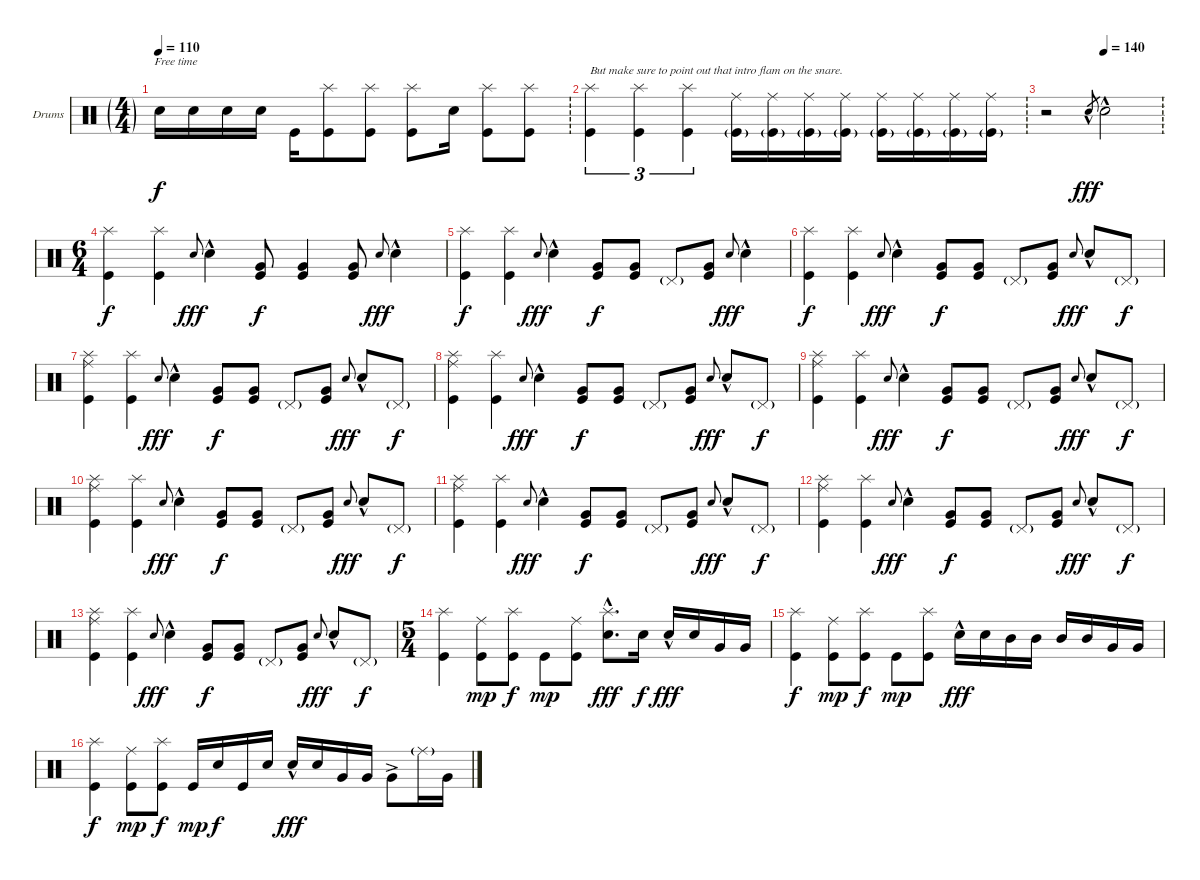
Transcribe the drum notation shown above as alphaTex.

\defaultSystemsLayout 4
\bracketExtendMode groupsimilarinstruments
\firstSystemTrackNameOrientation horizontal
\otherSystemsTrackNameOrientation horizontal
\track ("Drumkit" "Drums") {instrument percussion}
\staff {score}
\articulation defaults
\ts (4 4)
\ft
\tempo 110
\clef neutral
\scale
0.333333
\ks c "Snare (hit) 2".16{dy f} "Snare (hit) 2".16 "Snare (hit) 2".16 "Snare (hit) 2".16 "Kick (hit)".16
("Kick (hit)" "Splash (hit)").8 ("Kick (hit)" "Splash (hit)").8 ("Kick (hit)" "Splash (hit)").8 "Snare (hit) 2".16 ("Kick (hit)" "Splash (hit)").8 ("Kick (hit)" "Splash (hit)").8 |
\ft
\scale
0.333333 ("Kick (hit)" "Splash (hit)").4{tu (3 2) txt "But make sure to point out that intro flam on the snare."} ("Kick (hit)" "Splash (hit)").4{tu (3 2)} ("Kick (hit)" "Splash (hit)").4{tu (3 2)} ("Kick (hit)"{g} "Ride (middle)").16 ("Kick (hit)"{g} "Ride (middle)").16 ("Ride (middle)" "Kick (hit)"{g}).16 ("Ride (middle)" "Kick (hit)"{g}).16 ("Ride (middle)" "Kick (hit)"{g}).16 ("Ride (middle)" "Kick (hit)"{g}).16 ("Ride (middle)" "Kick (hit)"{g}).16 ("Ride (middle)" "Kick (hit)"{g}).16 |
\ft
\tempo (140 0.5)
\scale
0.262911 r.2 "Snare (hit) 2"{hac}.8{gr dy fff} "Snare (hit) 2"{hac}.2 |
\ts (6 4)
\scale
0.474178 ("Kick (hit)" "Splash (hit)").4{dy f} ("Kick (hit)" "Splash (hit)").4 "Snare (hit) 2".8{gr onbeat dy fff} "Snare (hit) 2"{hac}.4 ("Very Low Tom (hit)" "Kick (hit)").8{dy f} ("Kick (hit)" "Very Low Tom (hit)").4 ("Kick (hit)" "Very Low Tom (hit)").8 "Snare (hit) 2".8{gr onbeat dy fff} "Snare (hit) 2"{hac}.4 |
\scale
0.262911 ("Kick (hit)" "Splash (hit)").4{dy f} ("Kick (hit)" "Splash (hit)").4 "Snare (hit) 2".8{gr onbeat dy fff} "Snare (hit) 2"{hac}.4 ("Very Low Tom (hit)" "Kick (hit)").8{dy f} ("Kick (hit)" "Very Low Tom (hit)").8 "Pedal Hi-Hat (hit)"{g}.8 ("Kick (hit)" "Very Low Tom (hit)").8 "Snare (hit) 2".8{gr onbeat dy fff} "Snare (hit) 2"{hac}.4 |
\scale
0.333333 ("Kick (hit)" "Splash (hit)").4{dy f} ("Kick (hit)" "Splash (hit)").4 "Snare (hit) 2".8{gr onbeat dy fff} "Snare (hit) 2"{hac}.4 ("Very Low Tom (hit)" "Kick (hit)").8{dy f} ("Kick (hit)" "Very Low Tom (hit)").8 "Pedal Hi-Hat (hit)"{g}.8 ("Kick (hit)" "Very Low Tom (hit)").8 "Snare (hit) 2".8{gr onbeat dy fff} "Snare (hit) 2"{hac}.8 "Pedal Hi-Hat (hit)"{g}.8{dy f} |
\scale
0.333333 ("Kick (hit)" "Splash (hit)" "Ride (middle)").4 ("Kick (hit)" "Splash (hit)").4 "Snare (hit) 2".8{gr onbeat dy fff} "Snare (hit) 2"{hac}.4 ("Very Low Tom (hit)" "Kick (hit)").8{dy f} ("Kick (hit)" "Very Low Tom (hit)").8 "Pedal Hi-Hat (hit)"{g}.8 ("Kick (hit)" "Very Low Tom (hit)").8 "Snare (hit) 2".8{gr onbeat dy fff} "Snare (hit) 2"{hac}.8 "Pedal Hi-Hat (hit)"{g}.8{dy f} |
\scale
0.333333 ("Kick (hit)" "Splash (hit)" "Ride (middle)").4 ("Kick (hit)" "Splash (hit)").4 "Snare (hit) 2".8{gr onbeat dy fff} "Snare (hit) 2"{hac}.4 ("Very Low Tom (hit)" "Kick (hit)").8{dy f} ("Kick (hit)" "Very Low Tom (hit)").8 "Pedal Hi-Hat (hit)"{g}.8 ("Kick (hit)" "Very Low Tom (hit)").8 "Snare (hit) 2".8{gr onbeat dy fff} "Snare (hit) 2"{hac}.8 "Pedal Hi-Hat (hit)"{g}.8{dy f} |
\scale
0.333333 ("Kick (hit)" "Splash (hit)" "Ride (middle)").4 ("Kick (hit)" "Splash (hit)").4 "Snare (hit) 2".8{gr onbeat dy fff} "Snare (hit) 2"{hac}.4 ("Very Low Tom (hit)" "Kick (hit)").8{dy f} ("Kick (hit)" "Very Low Tom (hit)").8 "Pedal Hi-Hat (hit)"{g}.8 ("Kick (hit)" "Very Low Tom (hit)").8 "Snare (hit) 2".8{gr onbeat dy fff} "Snare (hit) 2"{hac}.8 "Pedal Hi-Hat (hit)"{g}.8{dy f} |
\scale
0.333333 ("Kick (hit)" "Splash (hit)" "Ride (middle)").4 ("Kick (hit)" "Splash (hit)").4 "Snare (hit) 2".8{gr onbeat dy fff} "Snare (hit) 2"{hac}.4 ("Very Low Tom (hit)" "Kick (hit)").8{dy f} ("Kick (hit)" "Very Low Tom (hit)").8 "Pedal Hi-Hat (hit)"{g}.8 ("Kick (hit)" "Very Low Tom (hit)").8 "Snare (hit) 2".8{gr onbeat dy fff} "Snare (hit) 2"{hac}.8 "Pedal Hi-Hat (hit)"{g}.8{dy f} |
\scale
0.333333 ("Kick (hit)" "Splash (hit)" "Ride (middle)").4 ("Kick (hit)" "Splash (hit)").4 "Snare (hit) 2".8{gr onbeat dy fff} "Snare (hit) 2"{hac}.4 ("Very Low Tom (hit)" "Kick (hit)").8{dy f} ("Kick (hit)" "Very Low Tom (hit)").8 "Pedal Hi-Hat (hit)"{g}.8 ("Kick (hit)" "Very Low Tom (hit)").8 "Snare (hit) 2".8{gr onbeat dy fff} "Snare (hit) 2"{hac}.8 "Pedal Hi-Hat (hit)"{g}.8{dy f} |
\scale
0.262911 ("Kick (hit)" "Splash (hit)" "Ride (middle)").4 ("Kick (hit)" "Splash (hit)").4 "Snare (hit) 2".8{gr onbeat dy fff} "Snare (hit) 2"{hac}.4 ("Very Low Tom (hit)" "Kick (hit)").8{dy f} ("Kick (hit)" "Very Low Tom (hit)").8 "Pedal Hi-Hat (hit)"{g}.8 ("Kick (hit)" "Very Low Tom (hit)").8 "Snare (hit) 2".8{gr onbeat dy fff} "Snare (hit) 2"{hac}.8 "Pedal Hi-Hat (hit)"{g}.8{dy f} |
\scale
0.262911 ("Kick (hit)" "Splash (hit)" "Ride (middle)").4 ("Kick (hit)" "Splash (hit)").4 "Snare (hit) 2".8{gr onbeat dy fff} "Snare (hit) 2"{hac}.4 ("Very Low Tom (hit)" "Kick (hit)").8{dy f} ("Kick (hit)" "Very Low Tom (hit)").8 "Pedal Hi-Hat (hit)"{g}.8 ("Kick (hit)" "Very Low Tom (hit)").8 "Snare (hit) 2".8{gr onbeat dy fff} "Snare (hit) 2"{hac}.8 "Pedal Hi-Hat (hit)"{g}.8{dy f} |
\ts (5 4)
\scale
0.474178 ("Kick (hit)" "Splash (hit)").4 ("Kick (hit)" "Ride (middle)").8{dy mp} ("Kick (hit)" "Splash (hit)").8{dy f} "Kick (hit)".8{dy mp} ("Kick (hit)" "Ride (middle)").8 ("Snare (hit) 2"{hac} "Splash (hit)").8{d dy fff} "Snare (hit) 2".16{dy f} "Snare (hit) 2"{hac}.16{dy fff} "Snare (hit) 2".16 "Very Low Tom (hit)".16 "Very Low Tom (hit)".16 |
\scale
0.333333 ("Kick (hit)" "Splash (hit)").4{dy f} ("Kick (hit)" "Ride (middle)").8{dy mp} ("Kick (hit)" "Splash (hit)").8{dy f} "Kick (hit)".8{dy mp} ("Kick (hit)" "Splash (hit)").8 "Snare (hit) 2"{hac}.16{dy fff} "Snare (hit) 2".16 "Mid Tom (hit)".16 "Mid Tom (hit)".16 "Mid Tom (hit)".16 "Mid Tom (hit)".16 "Very Low Tom (hit)".16 "Very Low Tom (hit)".16 |
\scale
0.333333 ("Kick (hit)" "Splash (hit)").4{dy f} ("Kick (hit)" "Ride (middle)").8{dy mp} ("Kick (hit)" "Splash (hit)").8{dy f} "Kick (hit)".16{dy mp} "Snare (hit) 2".16{dy f} "Kick (hit)".16 "Snare (hit) 2".16 "Snare (hit) 2"{hac}.16{dy fff} "Snare (hit) 2".16 "Very Low Tom (hit)".16 "Very Low Tom (hit)".16 "Very Low Tom (hit)"{ac}.8 "Ride (middle)"{g}.16 "Very Low Tom (hit)".16
